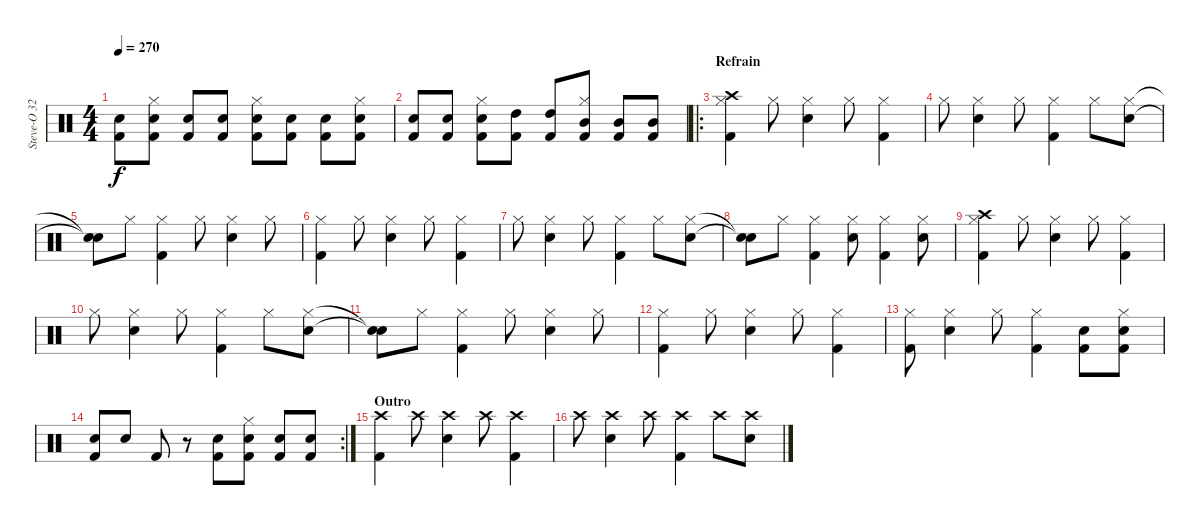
\track ("Steve-O 32" "Steve-O 32") {instrument percussion}
\staff {score}
\articulation defaults
\ts (4 4)
\tempo 270
\clef neutral
\ks c
("Electric Snare (hit)" "Kick (hit) 2").8{dy f} ("Electric Snare (hit)" "Hi-Hat (closed)" "Kick (hit) 2").8 ("Electric Snare (hit)" "Kick (hit) 2").8 ("Electric Snare (hit)" "Kick (hit) 2").8 ("Electric Snare (hit)" "Hi-Hat (closed)" "Kick (hit) 2").8 ("Electric Snare (hit)" "Kick (hit) 2").8 ("Electric Snare (hit)" "Kick (hit) 2").8 ("Electric Snare (hit)" "Hi-Hat (closed)" "Kick (hit) 2").8 |
("Electric Snare (hit)" "Kick (hit) 2").8 ("Electric Snare (hit)" "Kick (hit) 2").8 ("Electric Snare (hit)" "Hi-Hat (closed)" "Kick (hit) 2").8 ("High Tom (hit)" "Kick (hit) 2").8 ("High Tom (hit)" "Kick (hit) 2").8 ("Mid Tom (hit)" "Hi-Hat (closed)" "Kick (hit) 2").8 ("Mid Tom (hit)" "Kick (hit) 2").8 ("Mid Tom (hit)" "Kick (hit) 2").8 |
\ro
\section ("" "Refrain")
("Crash high (hit)" "Hi-Hat (closed)" "Kick (hit) 2").4{volume 10} "Hi-Hat (closed)".8 ("Electric Snare (hit)" "Hi-Hat (closed)").4 "Hi-Hat (closed)".8 ("Kick (hit) 2" "Hi-Hat (closed)").4 |
"Hi-Hat (closed)".8 ("Electric Snare (hit)" "Hi-Hat (closed)").4 "Hi-Hat (closed)".8 ("Kick (hit) 2" "Hi-Hat (closed)").4 "Hi-Hat (closed)".8 ("Electric Snare (hit)" "Hi-Hat (closed)").8 |
("Snare (hit)"{t} "Snare (hit)"{t}).8 "Hi-Hat (closed)".8 ("Kick (hit) 2" "Hi-Hat (closed)").4 "Hi-Hat (closed)".8 ("Electric Snare (hit)" "Hi-Hat (closed)").4 "Hi-Hat (closed)".8 |
("Hi-Hat (closed)" "Kick (hit) 2").4 "Hi-Hat (closed)".8 ("Electric Snare (hit)" "Hi-Hat (closed)").4 "Hi-Hat (closed)".8 ("Kick (hit) 2" "Hi-Hat (closed)").4 |
"Hi-Hat (closed)".8 ("Electric Snare (hit)" "Hi-Hat (closed)").4 "Hi-Hat (closed)".8 ("Kick (hit) 2" "Hi-Hat (closed)").4 "Hi-Hat (closed)".8 ("Electric Snare (hit)" "Hi-Hat (closed)").8 |
("Snare (hit)"{t} "Snare (hit)"{t}).8 "Hi-Hat (closed)".8 ("Kick (hit) 2" "Hi-Hat (closed)").4 ("Electric Snare (hit)" "Hi-Hat (closed)").8 ("Kick (hit) 2" "Hi-Hat (closed)").4 ("Electric Snare (hit)" "Hi-Hat (closed)").8 |
("Crash high (hit)" "Hi-Hat (closed)" "Kick (hit) 2").4 "Hi-Hat (closed)".8 ("Electric Snare (hit)" "Hi-Hat (closed)").4 "Hi-Hat (closed)".8 ("Kick (hit) 2" "Hi-Hat (closed)").4 |
"Hi-Hat (closed)".8 ("Electric Snare (hit)" "Hi-Hat (closed)").4 "Hi-Hat (closed)".8 ("Kick (hit) 2" "Hi-Hat (closed)").4 "Hi-Hat (closed)".8 ("Electric Snare (hit)" "Hi-Hat (closed)").8 |
("Snare (hit)"{t} "Snare (hit)"{t}).8 "Hi-Hat (closed)".8 ("Kick (hit) 2" "Hi-Hat (closed)").4 "Hi-Hat (closed)".8 ("Electric Snare (hit)" "Hi-Hat (closed)").4 "Hi-Hat (closed)".8 |
("Hi-Hat (closed)" "Kick (hit) 2").4 "Hi-Hat (closed)".8 ("Electric Snare (hit)" "Hi-Hat (closed)").4 "Hi-Hat (closed)".8 ("Kick (hit) 2" "Hi-Hat (closed)").4 |
("Hi-Hat (closed)" "Kick (hit) 2").8 ("Electric Snare (hit)" "Hi-Hat (closed)").4 "Hi-Hat (closed)".8 ("Kick (hit) 2" "Hi-Hat (closed)").4 ("Electric Snare (hit)" "Kick (hit) 2").8 ("Electric Snare (hit)" "Hi-Hat (closed)" "Kick (hit) 2").8 |
\rc 2
("Electric Snare (hit)" "Kick (hit) 2").8 "Electric Snare (hit)".8 "Kick (hit) 2".8 r.8 ("Electric Snare (hit)" "Kick (hit) 2").8 ("Electric Snare (hit)" "Hi-Hat (closed)" "Kick (hit) 2").8 ("Electric Snare (hit)" "Kick (hit) 2").8 ("Electric Snare (hit)" "Kick (hit) 2").8 |
\section ("" "Outro")
("Crash high (hit)" "Kick (hit) 2").4 "Crash high (hit)".8 ("Electric Snare (hit)" "Crash high (hit)").4 "Crash high (hit)".8 ("Kick (hit) 2" "Crash high (hit)").4 |
"Crash high (hit)".8 ("Electric Snare (hit)" "Crash high (hit)").4 "Crash high (hit)".8 ("Kick (hit) 2" "Crash high (hit)").4 "Crash high (hit)".8 ("Electric Snare (hit)" "Crash high (hit)").8
